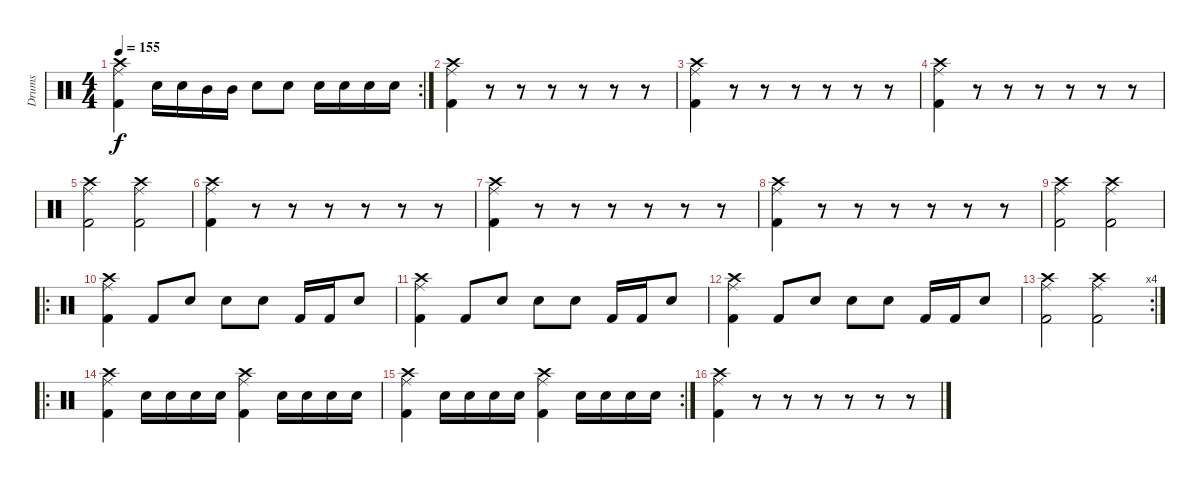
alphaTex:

\track ("Drums" "Drums") {instrument percussion}
\staff {score}
\articulation defaults
\rc 2
\ts (4 4)
\tempo 155
\clef neutral
\ks c
("Crash high (hit)" "Kick (hit) 2" "Ride (middle)").4{dy f} "Snare (hit) 2".16 "Snare (hit) 2".16 "Mid Tom (hit)".16 "Mid Tom (hit)".16 "Electric Snare (hit)".8 "Electric Snare (hit)".8 "Snare (hit) 2".16 "Snare (hit) 2".16 "Snare (hit) 2".16 "Snare (hit) 2".16 |
("Crash high (hit)" "Kick (hit) 2" "Ride (middle)").4 r.8 r.8 r.8 r.8 r.8 r.8 |
("Crash high (hit)" "Kick (hit) 2" "Ride (middle)").4 r.8 r.8 r.8 r.8 r.8 r.8 |
("Crash high (hit)" "Kick (hit) 2" "Ride (middle)").4 r.8 r.8 r.8 r.8 r.8 r.8 |
("Crash high (hit)" "Kick (hit) 2" "Ride (middle)").2 ("Crash high (hit)" "Kick (hit) 2" "Ride (middle)").2 |
("Crash high (hit)" "Kick (hit) 2" "Ride (middle)").4 r.8 r.8 r.8 r.8 r.8 r.8 |
("Crash high (hit)" "Kick (hit) 2" "Ride (middle)").4 r.8 r.8 r.8 r.8 r.8 r.8 |
("Crash high (hit)" "Kick (hit) 2" "Ride (middle)").4 r.8 r.8 r.8 r.8 r.8 r.8 |
("Crash high (hit)" "Kick (hit) 2" "Ride (middle)").2 ("Crash high (hit)" "Kick (hit) 2" "Ride (middle)").2 |
\ro
("Crash high (hit)" "Kick (hit) 2" "Ride (middle)").4 "Kick (hit) 2".8 "Snare (hit) 2".8 "Snare (hit) 2".8 "Snare (hit) 2".8 "Kick (hit) 2".16 "Kick (hit) 2".16 "Snare (hit) 2".8 |
("Crash high (hit)" "Kick (hit) 2" "Ride (middle)").4 "Kick (hit) 2".8 "Snare (hit) 2".8 "Snare (hit) 2".8 "Snare (hit) 2".8 "Kick (hit) 2".16 "Kick (hit) 2".16 "Snare (hit) 2".8 |
("Crash high (hit)" "Kick (hit) 2" "Ride (middle)").4 "Kick (hit) 2".8 "Snare (hit) 2".8 "Snare (hit) 2".8 "Snare (hit) 2".8 "Kick (hit) 2".16 "Kick (hit) 2".16 "Snare (hit) 2".8 |
\rc 4
("Crash high (hit)" "Kick (hit) 2" "Ride (middle)").2 ("Crash high (hit)" "Kick (hit) 2" "Ride (middle)").2 |
\ro
("Crash high (hit)" "Kick (hit) 2" "Ride (middle)").4 "Snare (hit) 2".16 "Snare (hit) 2".16 "Snare (hit) 2".16 "Snare (hit) 2".16 ("Crash high (hit)" "Kick (hit) 2" "Ride (middle)").4 "Snare (hit) 2".16 "Snare (hit) 2".16 "Snare (hit) 2".16 "Snare (hit) 2".16 |
\rc 2
("Crash high (hit)" "Kick (hit) 2" "Ride (middle)").4 "Snare (hit) 2".16 "Snare (hit) 2".16 "Snare (hit) 2".16 "Snare (hit) 2".16 ("Crash high (hit)" "Kick (hit) 2" "Ride (middle)").4 "Snare (hit) 2".16 "Snare (hit) 2".16 "Snare (hit) 2".16 "Snare (hit) 2".16 |
("Crash high (hit)" "Kick (hit) 2" "Ride (middle)").4 r.8 r.8 r.8 r.8 r.8 r.8
